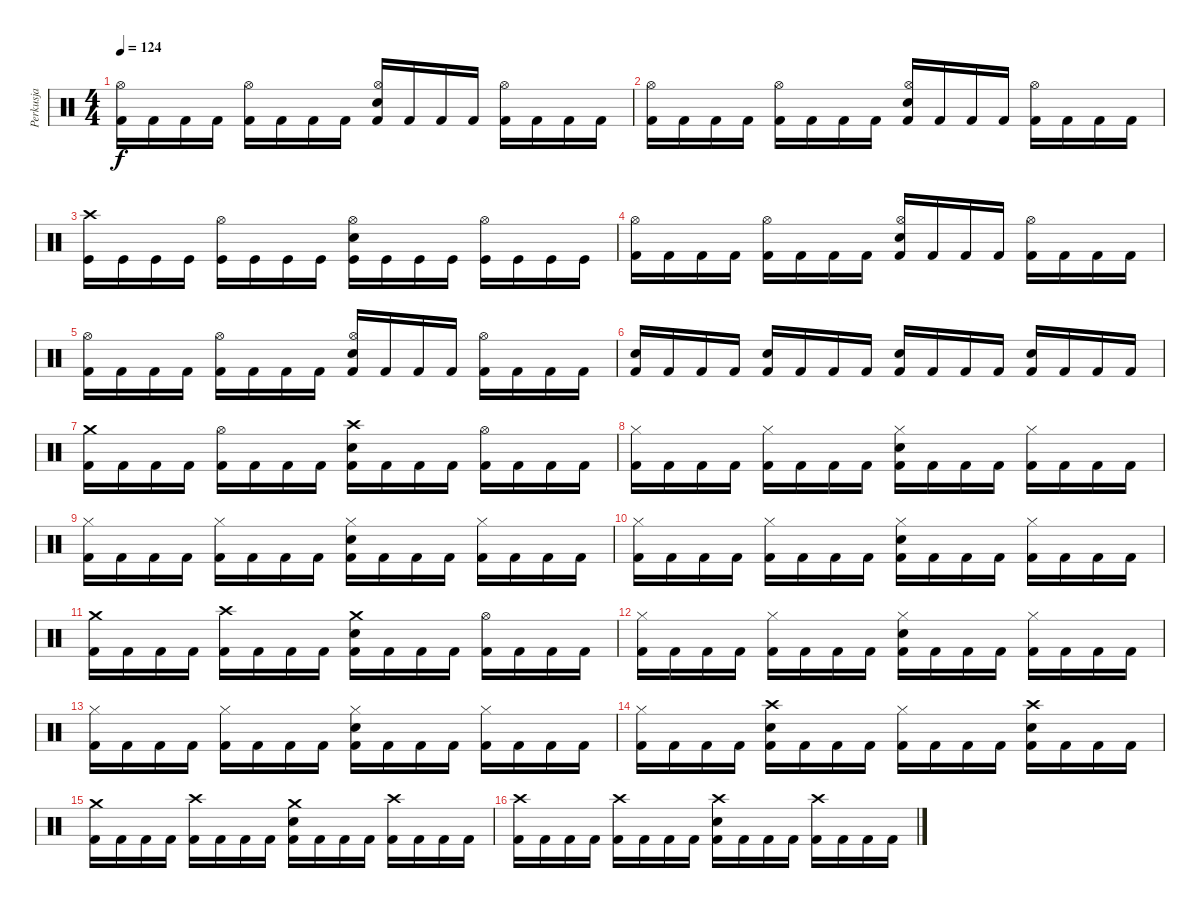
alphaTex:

\track ("Perkusja" "Perkusja") {instrument percussion}
\staff {score}
\articulation defaults
\ts (4 4)
\tempo 124
\clef neutral
\ks c
("Kick (hit) 2" "Hi-Hat (open)").16{dy f} "Kick (hit) 2".16 "Kick (hit) 2".16 "Kick (hit) 2".16 ("Kick (hit) 2" "Hi-Hat (open)").16 "Kick (hit) 2".16 "Kick (hit) 2".16 "Kick (hit) 2".16 ("Kick (hit) 2" "Snare (hit) 2" "Hi-Hat (open)").16 "Kick (hit) 2".16 "Kick (hit) 2".16 "Kick (hit) 2".16 ("Kick (hit) 2" "Hi-Hat (open)").16 "Kick (hit) 2".16 "Kick (hit) 2".16 "Kick (hit) 2".16 |
("Kick (hit) 2" "Hi-Hat (open)").16 "Kick (hit) 2".16 "Kick (hit) 2".16 "Kick (hit) 2".16 ("Kick (hit) 2" "Hi-Hat (open)").16 "Kick (hit) 2".16 "Kick (hit) 2".16 "Kick (hit) 2".16 ("Kick (hit) 2" "Snare (hit) 2" "Hi-Hat (open)").16 "Kick (hit) 2".16 "Kick (hit) 2".16 "Kick (hit) 2".16 ("Kick (hit) 2" "Hi-Hat (open)").16 "Kick (hit) 2".16 "Kick (hit) 2".16 "Kick (hit) 2".16 |
("Kick (hit)" "Crash high (hit)").16 "Kick (hit)".16 "Kick (hit)".16 "Kick (hit)".16 ("Kick (hit)" "Hi-Hat (open)").16 "Kick (hit)".16 "Kick (hit)".16 "Kick (hit)".16 ("Kick (hit)" "Snare (hit) 2" "Hi-Hat (open)").16 "Kick (hit)".16 "Kick (hit)".16 "Kick (hit)".16 ("Kick (hit)" "Hi-Hat (open)").16 "Kick (hit)".16 "Kick (hit)".16 "Kick (hit)".16 |
("Kick (hit) 2" "Hi-Hat (open)").16 "Kick (hit) 2".16 "Kick (hit) 2".16 "Kick (hit) 2".16 ("Kick (hit) 2" "Hi-Hat (open)").16 "Kick (hit) 2".16 "Kick (hit) 2".16 "Kick (hit) 2".16 ("Kick (hit) 2" "Snare (hit) 2" "Hi-Hat (open)").16 "Kick (hit) 2".16 "Kick (hit) 2".16 "Kick (hit) 2".16 ("Kick (hit) 2" "Hi-Hat (open)").16 "Kick (hit) 2".16 "Kick (hit) 2".16 "Kick (hit) 2".16 |
("Kick (hit) 2" "Hi-Hat (open)").16 "Kick (hit) 2".16 "Kick (hit) 2".16 "Kick (hit) 2".16 ("Kick (hit) 2" "Hi-Hat (open)").16 "Kick (hit) 2".16 "Kick (hit) 2".16 "Kick (hit) 2".16 ("Kick (hit) 2" "Snare (hit) 2" "Hi-Hat (open)").16 "Kick (hit) 2".16 "Kick (hit) 2".16 "Kick (hit) 2".16 ("Kick (hit) 2" "Hi-Hat (open)").16 "Kick (hit) 2".16 "Kick (hit) 2".16 "Kick (hit) 2".16 |
("Kick (hit) 2" "Snare (hit) 2").16 "Kick (hit) 2".16 "Kick (hit) 2".16 "Kick (hit) 2".16 ("Kick (hit) 2" "Snare (hit) 2").16 "Kick (hit) 2".16 "Kick (hit) 2".16 "Kick (hit) 2".16 ("Kick (hit) 2" "Snare (hit) 2").16 "Kick (hit) 2".16 "Kick (hit) 2".16 "Kick (hit) 2".16 ("Kick (hit) 2" "Snare (hit) 2").16 "Kick (hit) 2".16 "Kick (hit) 2".16 "Kick (hit) 2".16 |
("Kick (hit) 2" "Crash medium (hit)").16 "Kick (hit) 2".16 "Kick (hit) 2".16 "Kick (hit) 2".16 ("Kick (hit) 2" "Hi-Hat (open)").16 "Kick (hit) 2".16 "Kick (hit) 2".16 "Kick (hit) 2".16 ("Kick (hit) 2" "Snare (hit) 2" "Crash high (hit)").16 "Kick (hit) 2".16 "Kick (hit) 2".16 "Kick (hit) 2".16 ("Kick (hit) 2" "Hi-Hat (open)").16 "Kick (hit) 2".16 "Kick (hit) 2".16 "Kick (hit) 2".16 |
("Kick (hit) 2" "Hi-Hat (closed)").16 "Kick (hit) 2".16 "Kick (hit) 2".16 "Kick (hit) 2".16 ("Kick (hit) 2" "Hi-Hat (closed)").16 "Kick (hit) 2".16 "Kick (hit) 2".16 "Kick (hit) 2".16 ("Kick (hit) 2" "Snare (hit) 2" "Hi-Hat (closed)").16 "Kick (hit) 2".16 "Kick (hit) 2".16 "Kick (hit) 2".16 ("Kick (hit) 2" "Hi-Hat (closed)").16 "Kick (hit) 2".16 "Kick (hit) 2".16 "Kick (hit) 2".16 |
("Kick (hit) 2" "Hi-Hat (closed)").16 "Kick (hit) 2".16 "Kick (hit) 2".16 "Kick (hit) 2".16 ("Kick (hit) 2" "Hi-Hat (closed)").16 "Kick (hit) 2".16 "Kick (hit) 2".16 "Kick (hit) 2".16 ("Kick (hit) 2" "Snare (hit) 2" "Hi-Hat (closed)").16 "Kick (hit) 2".16 "Kick (hit) 2".16 "Kick (hit) 2".16 ("Kick (hit) 2" "Hi-Hat (closed)").16 "Kick (hit) 2".16 "Kick (hit) 2".16 "Kick (hit) 2".16 |
("Kick (hit) 2" "Hi-Hat (closed)").16 "Kick (hit) 2".16 "Kick (hit) 2".16 "Kick (hit) 2".16 ("Kick (hit) 2" "Hi-Hat (closed)").16 "Kick (hit) 2".16 "Kick (hit) 2".16 "Kick (hit) 2".16 ("Kick (hit) 2" "Snare (hit) 2" "Hi-Hat (closed)").16 "Kick (hit) 2".16 "Kick (hit) 2".16 "Kick (hit) 2".16 ("Kick (hit) 2" "Hi-Hat (closed)").16 "Kick (hit) 2".16 "Kick (hit) 2".16 "Kick (hit) 2".16 |
("Kick (hit) 2" "Crash medium (hit)").16 "Kick (hit) 2".16 "Kick (hit) 2".16 "Kick (hit) 2".16 ("Kick (hit) 2" "Crash high (hit)").16 "Kick (hit) 2".16 "Kick (hit) 2".16 "Kick (hit) 2".16 ("Kick (hit) 2" "Snare (hit) 2" "Crash medium (hit)").16 "Kick (hit) 2".16 "Kick (hit) 2".16 "Kick (hit) 2".16 ("Kick (hit) 2" "Hi-Hat (open)").16 "Kick (hit) 2".16 "Kick (hit) 2".16 "Kick (hit) 2".16 |
("Kick (hit) 2" "Hi-Hat (closed)").16 "Kick (hit) 2".16 "Kick (hit) 2".16 "Kick (hit) 2".16 ("Kick (hit) 2" "Hi-Hat (closed)").16 "Kick (hit) 2".16 "Kick (hit) 2".16 "Kick (hit) 2".16 ("Kick (hit) 2" "Snare (hit) 2" "Hi-Hat (closed)").16 "Kick (hit) 2".16 "Kick (hit) 2".16 "Kick (hit) 2".16 ("Kick (hit) 2" "Hi-Hat (closed)").16 "Kick (hit) 2".16 "Kick (hit) 2".16 "Kick (hit) 2".16 |
("Kick (hit) 2" "Hi-Hat (closed)").16 "Kick (hit) 2".16 "Kick (hit) 2".16 "Kick (hit) 2".16 ("Kick (hit) 2" "Hi-Hat (closed)").16 "Kick (hit) 2".16 "Kick (hit) 2".16 "Kick (hit) 2".16 ("Kick (hit) 2" "Snare (hit) 2" "Hi-Hat (closed)").16 "Kick (hit) 2".16 "Kick (hit) 2".16 "Kick (hit) 2".16 ("Kick (hit) 2" "Hi-Hat (closed)").16 "Kick (hit) 2".16 "Kick (hit) 2".16 "Kick (hit) 2".16 |
("Kick (hit) 2" "Hi-Hat (closed)").16 "Kick (hit) 2".16 "Kick (hit) 2".16 "Kick (hit) 2".16 ("Kick (hit) 2" "Snare (hit) 2" "Crash high (hit)").16 "Kick (hit) 2".16 "Kick (hit) 2".16 "Kick (hit) 2".16 ("Kick (hit) 2" "Hi-Hat (closed)").16 "Kick (hit) 2".16 "Kick (hit) 2".16 "Kick (hit) 2".16 ("Kick (hit) 2" "Snare (hit) 2" "Crash high (hit)").16 "Kick (hit) 2".16 "Kick (hit) 2".16 "Kick (hit) 2".16 |
("Kick (hit) 2" "Crash medium (hit)").16 "Kick (hit) 2".16 "Kick (hit) 2".16 "Kick (hit) 2".16 ("Kick (hit) 2" "Crash high (hit)").16 "Kick (hit) 2".16 "Kick (hit) 2".16 "Kick (hit) 2".16 ("Kick (hit) 2" "Snare (hit) 2" "Crash medium (hit)").16 "Kick (hit) 2".16 "Kick (hit) 2".16 "Kick (hit) 2".16 ("Kick (hit) 2" "Crash high (hit)").16 "Kick (hit) 2".16 "Kick (hit) 2".16 "Kick (hit) 2".16 |
("Kick (hit) 2" "Crash high (hit)").16 "Kick (hit) 2".16 "Kick (hit) 2".16 "Kick (hit) 2".16 ("Kick (hit) 2" "Crash high (hit)").16 "Kick (hit) 2".16 "Kick (hit) 2".16 "Kick (hit) 2".16 ("Kick (hit) 2" "Snare (hit) 2" "Crash high (hit)").16 "Kick (hit) 2".16 "Kick (hit) 2".16 "Kick (hit) 2".16 ("Kick (hit) 2" "Crash high (hit)").16 "Kick (hit) 2".16 "Kick (hit) 2".16 "Kick (hit) 2".16
